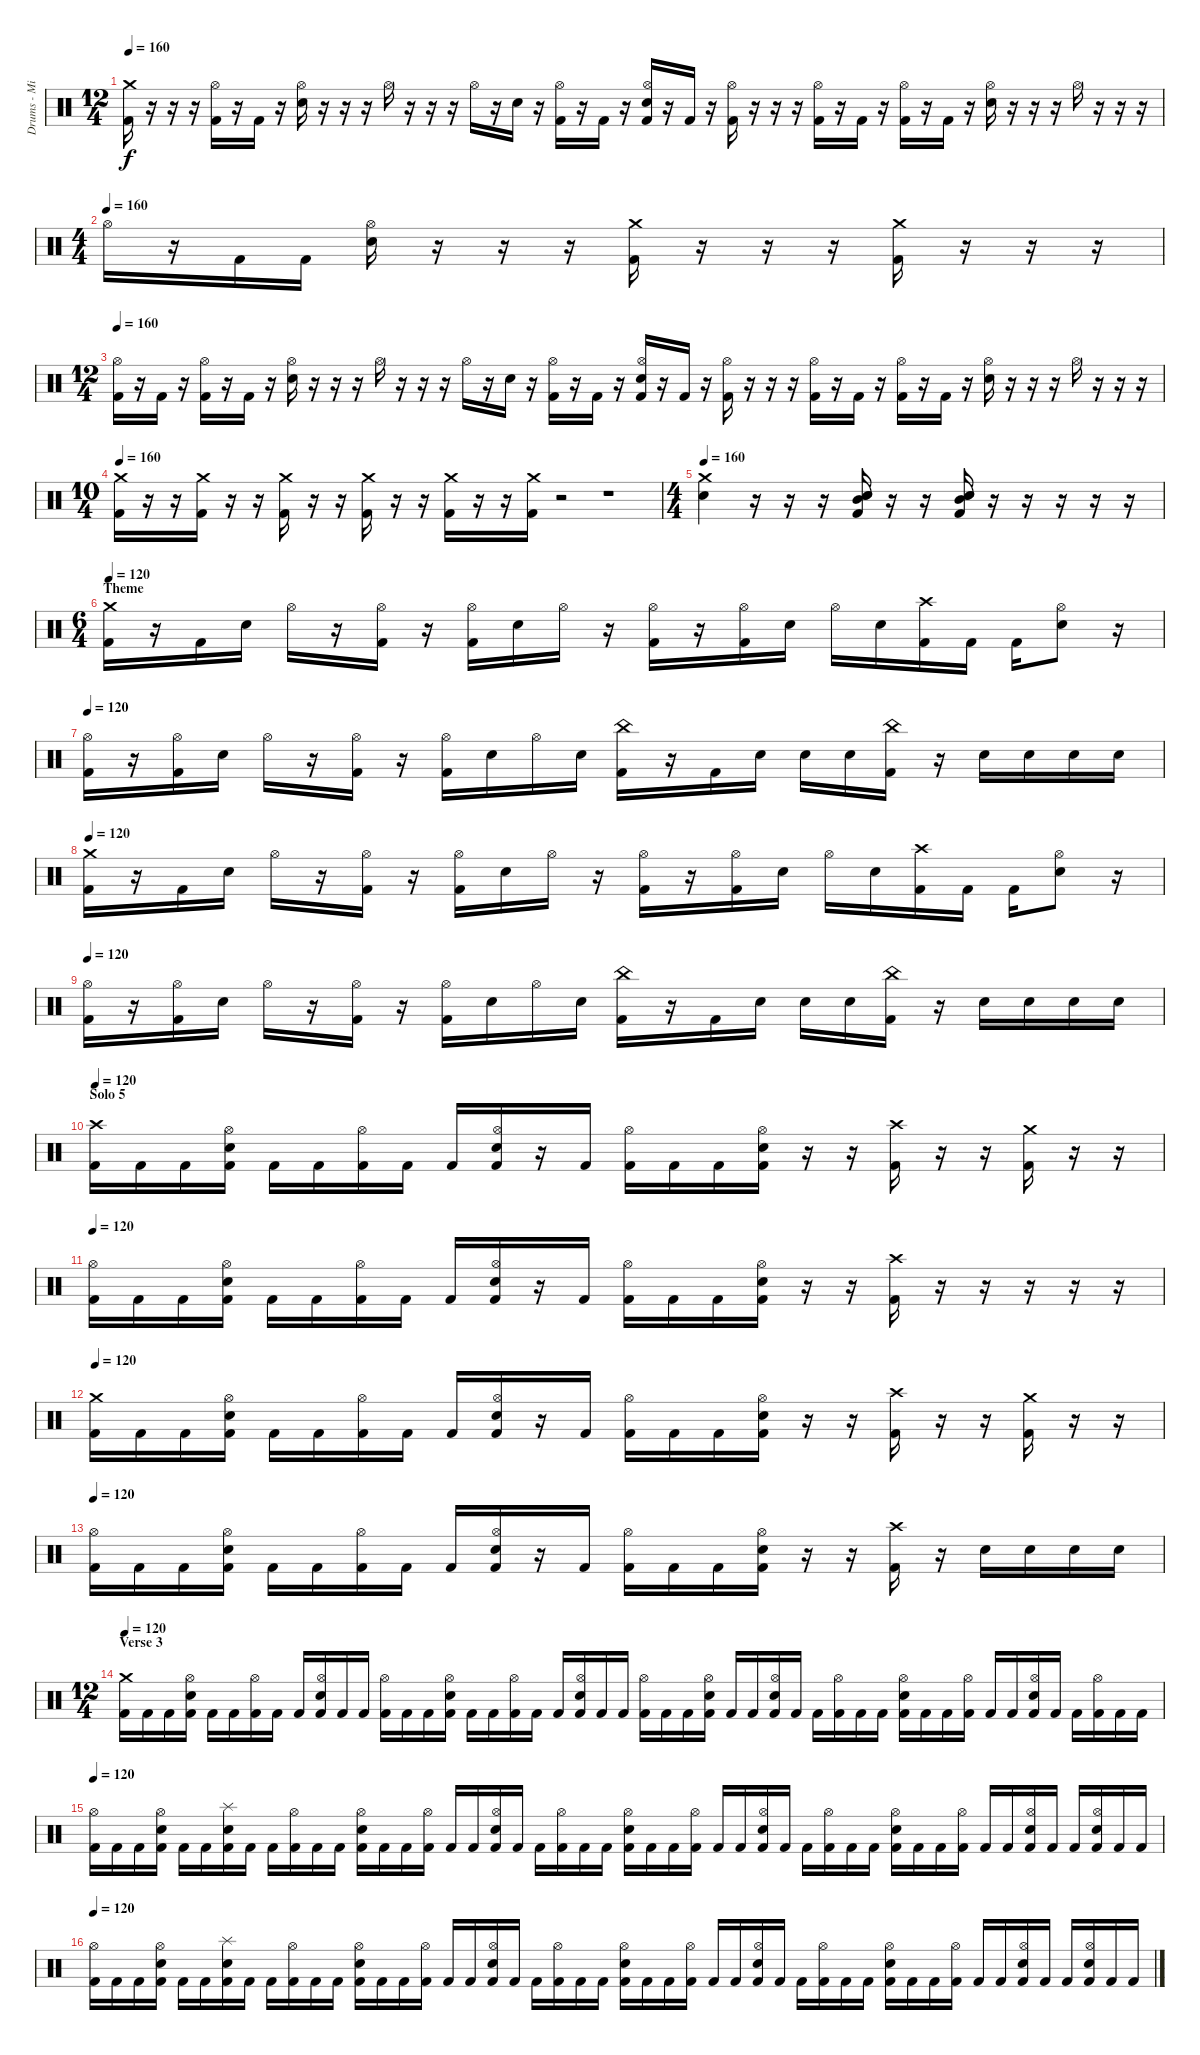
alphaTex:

\track ("Drums - Mikkey Dee" "Drums - Mi") {instrument percussion}
\staff {score}
\articulation defaults
\ts (12 4)
\tempo 160
\clef neutral
\ks c
("Crash medium (hit)" "Kick (hit) 2").16{dy f} r.16 r.16 r.16 ("Hi-Hat (open)" "Kick (hit) 2").16 r.16 "Kick (hit) 2".16 r.16 ("Hi-Hat (open)" "Electric Snare (hit)").16 r.16 r.16 r.16 "Hi-Hat (open)".16 r.16 r.16 r.16 "Hi-Hat (open)".16 r.16 "Electric Snare (hit)".16 r.16 ("Hi-Hat (open)" "Kick (hit) 2").16 r.16 "Kick (hit) 2".16 r.16 ("Hi-Hat (open)" "Electric Snare (hit)" "Kick (hit) 2").16 r.16 "Kick (hit) 2".16 r.16 ("Hi-Hat (open)" "Kick (hit) 2").16 r.16 r.16 r.16 ("Hi-Hat (open)" "Kick (hit) 2").16 r.16 "Kick (hit) 2".16 r.16 ("Hi-Hat (open)" "Kick (hit) 2").16 r.16 "Kick (hit) 2".16 r.16 ("Hi-Hat (open)" "Electric Snare (hit)").16 r.16 r.16 r.16 "Hi-Hat (open)".16 r.16 r.16 r.16 |
\ts (4 4)
\tempo (160)
"Hi-Hat (open)".16 r.16 "Kick (hit) 2".16 "Kick (hit) 2".16 ("Hi-Hat (open)" "Electric Snare (hit)").16 r.16 r.16 r.16 ("Crash medium (hit)" "Kick (hit) 2").16 r.16 r.16 r.16 ("Crash medium (hit)" "Kick (hit) 2").16 r.16 r.16 r.16 |
\ts (12 4)
\tempo 160
("Hi-Hat (open)" "Kick (hit) 2").16 r.16 "Kick (hit) 2".16 r.16 ("Hi-Hat (open)" "Kick (hit) 2").16 r.16 "Kick (hit) 2".16 r.16 ("Hi-Hat (open)" "Electric Snare (hit)").16 r.16 r.16 r.16 "Hi-Hat (open)".16 r.16 r.16 r.16 "Hi-Hat (open)".16 r.16 "Electric Snare (hit)".16 r.16 ("Hi-Hat (open)" "Kick (hit) 2").16 r.16 "Kick (hit) 2".16 r.16 ("Hi-Hat (open)" "Electric Snare (hit)" "Kick (hit) 2").16 r.16 "Kick (hit) 2".16 r.16 ("Hi-Hat (open)" "Kick (hit) 2").16 r.16 r.16 r.16 ("Hi-Hat (open)" "Kick (hit) 2").16 r.16 "Kick (hit) 2".16 r.16 ("Hi-Hat (open)" "Kick (hit) 2").16 r.16 "Kick (hit) 2".16 r.16 ("Hi-Hat (open)" "Electric Snare (hit)").16 r.16 r.16 r.16 "Hi-Hat (open)".16 r.16 r.16 r.16 |
\ts (10 4)
\tempo 160
("Crash medium (hit)" "Kick (hit) 2").16 r.16 r.16 ("Crash medium (hit)" "Kick (hit) 2").16 r.16 r.16 ("Crash medium (hit)" "Kick (hit) 2").16 r.16 r.16 ("Crash medium (hit)" "Kick (hit) 2").16 r.16 r.16 ("Crash medium (hit)" "Kick (hit) 2").16 r.16 r.16 ("Crash medium (hit)" "Kick (hit) 2").16 r.2 r.1 |
\ts (4 4)
\tempo 160
("Crash medium (hit)" "Electric Snare (hit)").4 r.16 r.16 r.16 ("Mid Tom (hit)" "Snare (hit) 2" "Electric Snare (hit)" "Kick (hit) 2").16 r.16 r.16 ("Mid Tom (hit)" "Snare (hit) 2" "Electric Snare (hit)" "Kick (hit) 2").16 r.16 r.16 r.16 r.16 r.16 |
\ts (6 4)
\section ("" "Theme")
\tempo 120
("Crash medium (hit)" "Kick (hit) 2").16 r.16 "Kick (hit) 2".16 "Electric Snare (hit)".16 "Hi-Hat (open)".16 r.16 ("Hi-Hat (open)" "Kick (hit) 2").16 r.16 ("Hi-Hat (open)" "Kick (hit) 2").16 "Electric Snare (hit)".16 "Hi-Hat (open)".16 r.16 ("Hi-Hat (open)" "Kick (hit) 2").16 r.16 ("Hi-Hat (open)" "Kick (hit) 2").16 "Electric Snare (hit)".16 "Hi-Hat (open)".16 "Electric Snare (hit)".16 ("Crash high (hit)" "Kick (hit) 2").16 "Kick (hit) 2".16 "Kick (hit) 2".16 ("Hi-Hat (open)" "Electric Snare (hit)").8 r.16 |
\tempo 120
("Hi-Hat (open)" "Kick (hit) 2").16 r.16 ("Hi-Hat (open)" "Kick (hit) 2").16 "Electric Snare (hit)".16 "Hi-Hat (open)".16 r.16 ("Hi-Hat (open)" "Kick (hit) 2").16 r.16 ("Hi-Hat (open)" "Kick (hit) 2").16 "Electric Snare (hit)".16 "Hi-Hat (open)".16 "Electric Snare (hit)".16 ("China (hit)" "Kick (hit) 2").16 r.16 "Kick (hit) 2".16 "Electric Snare (hit)".16 "Electric Snare (hit)".16 "Electric Snare (hit)".16 ("China (hit)" "Kick (hit) 2").16 r.16 "Electric Snare (hit)".16 "Electric Snare (hit)".16 "Electric Snare (hit)".16 "Electric Snare (hit)".16 |
\tempo 120
("Crash medium (hit)" "Kick (hit) 2").16 r.16 "Kick (hit) 2".16 "Electric Snare (hit)".16 "Hi-Hat (open)".16 r.16 ("Hi-Hat (open)" "Kick (hit) 2").16 r.16 ("Hi-Hat (open)" "Kick (hit) 2").16 "Electric Snare (hit)".16 "Hi-Hat (open)".16 r.16 ("Hi-Hat (open)" "Kick (hit) 2").16 r.16 ("Hi-Hat (open)" "Kick (hit) 2").16 "Electric Snare (hit)".16 "Hi-Hat (open)".16 "Electric Snare (hit)".16 ("Crash high (hit)" "Kick (hit) 2").16 "Kick (hit) 2".16 "Kick (hit) 2".16 ("Hi-Hat (open)" "Electric Snare (hit)").8 r.16 |
\tempo 120
("Hi-Hat (open)" "Kick (hit) 2").16 r.16 ("Hi-Hat (open)" "Kick (hit) 2").16 "Electric Snare (hit)".16 "Hi-Hat (open)".16 r.16 ("Hi-Hat (open)" "Kick (hit) 2").16 r.16 ("Hi-Hat (open)" "Kick (hit) 2").16 "Electric Snare (hit)".16 "Hi-Hat (open)".16 "Electric Snare (hit)".16 ("China (hit)" "Kick (hit) 2").16 r.16 "Kick (hit) 2".16 "Electric Snare (hit)".16 "Electric Snare (hit)".16 "Electric Snare (hit)".16 ("China (hit)" "Kick (hit) 2").16 r.16 "Electric Snare (hit)".16 "Electric Snare (hit)".16 "Electric Snare (hit)".16 "Electric Snare (hit)".16 |
\section ("" "Solo 5")
\tempo 120
("Crash high (hit)" "Kick (hit) 2").16 "Kick (hit) 2".16 "Kick (hit) 2".16 ("Hi-Hat (open)" "Electric Snare (hit)" "Kick (hit) 2").16 "Kick (hit) 2".16 "Kick (hit) 2".16 ("Hi-Hat (open)" "Kick (hit) 2").16 "Kick (hit) 2".16 "Kick (hit) 2".16 ("Hi-Hat (open)" "Electric Snare (hit)" "Kick (hit) 2").16 r.16 "Kick (hit) 2".16 ("Hi-Hat (open)" "Kick (hit) 2").16 "Kick (hit) 2".16 "Kick (hit) 2".16 ("Hi-Hat (open)" "Electric Snare (hit)" "Kick (hit) 2").16 r.16 r.16 ("Crash high (hit)" "Kick (hit) 2").16 r.16 r.16 ("Crash medium (hit)" "Kick (hit) 2").16 r.16 r.16 |
\tempo 120
("Hi-Hat (open)" "Kick (hit) 2").16 "Kick (hit) 2".16 "Kick (hit) 2".16 ("Hi-Hat (open)" "Electric Snare (hit)" "Kick (hit) 2").16 "Kick (hit) 2".16 "Kick (hit) 2".16 ("Hi-Hat (open)" "Kick (hit) 2").16 "Kick (hit) 2".16 "Kick (hit) 2".16 ("Hi-Hat (open)" "Electric Snare (hit)" "Kick (hit) 2").16 r.16 "Kick (hit) 2".16 ("Hi-Hat (open)" "Kick (hit) 2").16 "Kick (hit) 2".16 "Kick (hit) 2".16 ("Hi-Hat (open)" "Electric Snare (hit)" "Kick (hit) 2").16 r.16 r.16 ("Crash high (hit)" "Kick (hit) 2").16 r.16 r.16 r.16 r.16 r.16 |
\tempo 120
("Crash medium (hit)" "Kick (hit) 2").16 "Kick (hit) 2".16 "Kick (hit) 2".16 ("Hi-Hat (open)" "Electric Snare (hit)" "Kick (hit) 2").16 "Kick (hit) 2".16 "Kick (hit) 2".16 ("Hi-Hat (open)" "Kick (hit) 2").16 "Kick (hit) 2".16 "Kick (hit) 2".16 ("Hi-Hat (open)" "Electric Snare (hit)" "Kick (hit) 2").16 r.16 "Kick (hit) 2".16 ("Hi-Hat (open)" "Kick (hit) 2").16 "Kick (hit) 2".16 "Kick (hit) 2".16 ("Hi-Hat (open)" "Electric Snare (hit)" "Kick (hit) 2").16 r.16 r.16 ("Crash high (hit)" "Kick (hit) 2").16 r.16 r.16 ("Crash medium (hit)" "Kick (hit) 2").16 r.16 r.16 |
\tempo 120
("Hi-Hat (open)" "Kick (hit) 2").16 "Kick (hit) 2".16 "Kick (hit) 2".16 ("Hi-Hat (open)" "Electric Snare (hit)" "Kick (hit) 2").16 "Kick (hit) 2".16 "Kick (hit) 2".16 ("Hi-Hat (open)" "Kick (hit) 2").16 "Kick (hit) 2".16 "Kick (hit) 2".16 ("Hi-Hat (open)" "Electric Snare (hit)" "Kick (hit) 2").16 r.16 "Kick (hit) 2".16 ("Hi-Hat (open)" "Kick (hit) 2").16 "Kick (hit) 2".16 "Kick (hit) 2".16 ("Hi-Hat (open)" "Electric Snare (hit)" "Kick (hit) 2").16 r.16 r.16 ("Crash high (hit)" "Kick (hit) 2").16 r.16 "Electric Snare (hit)".16 "Electric Snare (hit)".16 "Electric Snare (hit)".16 "Electric Snare (hit)".16 |
\ts (12 4)
\section ("" "Verse 3")
\tempo 120
("Crash medium (hit)" "Kick (hit) 2").16 "Kick (hit) 2".16 "Kick (hit) 2".16 ("Hi-Hat (open)" "Electric Snare (hit)" "Kick (hit) 2").16 "Kick (hit) 2".16 "Kick (hit) 2".16 ("Hi-Hat (open)" "Kick (hit) 2").16 "Kick (hit) 2".16 "Kick (hit) 2".16 ("Hi-Hat (open)" "Electric Snare (hit)" "Kick (hit) 2").16 "Kick (hit) 2".16 "Kick (hit) 2".16 ("Hi-Hat (open)" "Kick (hit) 2").16 "Kick (hit) 2".16 "Kick (hit) 2".16 ("Hi-Hat (open)" "Electric Snare (hit)" "Kick (hit) 2").16 "Kick (hit) 2".16 "Kick (hit) 2".16 ("Hi-Hat (open)" "Kick (hit) 2").16 "Kick (hit) 2".16 "Kick (hit) 2".16 ("Hi-Hat (open)" "Electric Snare (hit)" "Kick (hit) 2").16 "Kick (hit) 2".16 "Kick (hit) 2".16 ("Hi-Hat (open)" "Kick (hit) 2").16 "Kick (hit) 2".16 "Kick (hit) 2".16 ("Hi-Hat (open)" "Electric Snare (hit)" "Kick (hit) 2").16 "Kick (hit) 2".16 "Kick (hit) 2".16 ("Hi-Hat (open)" "Electric Snare (hit)" "Kick (hit) 2").16 "Kick (hit) 2".16 "Kick (hit) 2".16 ("Hi-Hat (open)" "Kick (hit) 2").16 "Kick (hit) 2".16 "Kick (hit) 2".16 ("Hi-Hat (open)" "Electric Snare (hit)" "Kick (hit) 2").16 "Kick (hit) 2".16 "Kick (hit) 2".16 ("Hi-Hat (open)" "Kick (hit) 2").16 "Kick (hit) 2".16 "Kick (hit) 2".16 ("Hi-Hat (open)" "Electric Snare (hit)" "Kick (hit) 2").16 "Kick (hit) 2".16 "Kick (hit) 2".16 ("Hi-Hat (open)" "Kick (hit) 2").16 "Kick (hit) 2".16 "Kick (hit) 2".16 |
\tempo 120
("Hi-Hat (open)" "Kick (hit) 2").16 "Kick (hit) 2".16 "Kick (hit) 2".16 ("Hi-Hat (open)" "Electric Snare (hit)" "Kick (hit) 2").16 "Kick (hit) 2".16 "Kick (hit) 2".16 ("Splash (hit)" "Electric Snare (hit)" "Kick (hit) 2").16 "Kick (hit) 2".16 "Kick (hit) 2".16 ("Hi-Hat (open)" "Kick (hit) 2").16 "Kick (hit) 2".16 "Kick (hit) 2".16 ("Hi-Hat (open)" "Electric Snare (hit)" "Kick (hit) 2").16 "Kick (hit) 2".16 "Kick (hit) 2".16 ("Hi-Hat (open)" "Kick (hit) 2").16 "Kick (hit) 2".16 "Kick (hit) 2".16 ("Hi-Hat (open)" "Electric Snare (hit)" "Kick (hit) 2").16 "Kick (hit) 2".16 "Kick (hit) 2".16 ("Hi-Hat (open)" "Kick (hit) 2").16 "Kick (hit) 2".16 "Kick (hit) 2".16 ("Hi-Hat (open)" "Electric Snare (hit)" "Kick (hit) 2").16 "Kick (hit) 2".16 "Kick (hit) 2".16 ("Hi-Hat (open)" "Kick (hit) 2").16 "Kick (hit) 2".16 "Kick (hit) 2".16 ("Hi-Hat (open)" "Electric Snare (hit)" "Kick (hit) 2").16 "Kick (hit) 2".16 "Kick (hit) 2".16 ("Hi-Hat (open)" "Kick (hit) 2").16 "Kick (hit) 2".16 "Kick (hit) 2".16 ("Hi-Hat (open)" "Electric Snare (hit)" "Kick (hit) 2").16 "Kick (hit) 2".16 "Kick (hit) 2".16 ("Hi-Hat (open)" "Kick (hit) 2").16 "Kick (hit) 2".16 "Kick (hit) 2".16 ("Hi-Hat (open)" "Electric Snare (hit)" "Kick (hit) 2").16 "Kick (hit) 2".16 "Kick (hit) 2".16 ("Hi-Hat (open)" "Electric Snare (hit)" "Kick (hit) 2").16 "Kick (hit) 2".16 "Kick (hit) 2".16 |
\tempo 120
("Hi-Hat (open)" "Kick (hit) 2").16 "Kick (hit) 2".16 "Kick (hit) 2".16 ("Hi-Hat (open)" "Electric Snare (hit)" "Kick (hit) 2").16 "Kick (hit) 2".16 "Kick (hit) 2".16 ("Splash (hit)" "Electric Snare (hit)" "Kick (hit) 2").16 "Kick (hit) 2".16 "Kick (hit) 2".16 ("Hi-Hat (open)" "Kick (hit) 2").16 "Kick (hit) 2".16 "Kick (hit) 2".16 ("Hi-Hat (open)" "Electric Snare (hit)" "Kick (hit) 2").16 "Kick (hit) 2".16 "Kick (hit) 2".16 ("Hi-Hat (open)" "Kick (hit) 2").16 "Kick (hit) 2".16 "Kick (hit) 2".16 ("Hi-Hat (open)" "Electric Snare (hit)" "Kick (hit) 2").16 "Kick (hit) 2".16 "Kick (hit) 2".16 ("Hi-Hat (open)" "Kick (hit) 2").16 "Kick (hit) 2".16 "Kick (hit) 2".16 ("Hi-Hat (open)" "Electric Snare (hit)" "Kick (hit) 2").16 "Kick (hit) 2".16 "Kick (hit) 2".16 ("Hi-Hat (open)" "Kick (hit) 2").16 "Kick (hit) 2".16 "Kick (hit) 2".16 ("Hi-Hat (open)" "Electric Snare (hit)" "Kick (hit) 2").16 "Kick (hit) 2".16 "Kick (hit) 2".16 ("Hi-Hat (open)" "Kick (hit) 2").16 "Kick (hit) 2".16 "Kick (hit) 2".16 ("Hi-Hat (open)" "Electric Snare (hit)" "Kick (hit) 2").16 "Kick (hit) 2".16 "Kick (hit) 2".16 ("Hi-Hat (open)" "Kick (hit) 2").16 "Kick (hit) 2".16 "Kick (hit) 2".16 ("Hi-Hat (open)" "Electric Snare (hit)" "Kick (hit) 2").16 "Kick (hit) 2".16 "Kick (hit) 2".16 ("Hi-Hat (open)" "Electric Snare (hit)" "Kick (hit) 2").16 "Kick (hit) 2".16 "Kick (hit) 2".16
